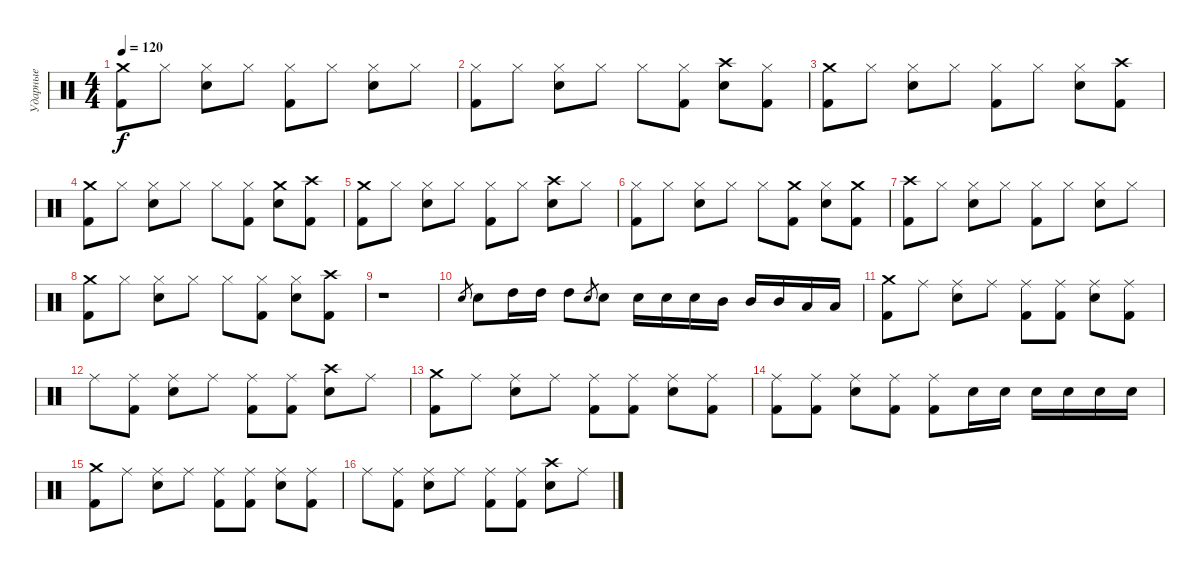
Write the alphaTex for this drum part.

\track ("Ударные" "Ударные") {instrument percussion}
\staff {score}
\articulation defaults
\ts (4 4)
\tempo 120
\clef neutral
\ks c
("Crash medium (hit)" "Kick (hit) 2").8{dy f} "Hi-Hat (closed)".8 ("Hi-Hat (closed)" "Electric Snare (hit)").8 "Hi-Hat (closed)".8 ("Hi-Hat (closed)" "Kick (hit) 2").8 "Hi-Hat (closed)".8 ("Hi-Hat (closed)" "Electric Snare (hit)").8 "Hi-Hat (closed)".8 |
("Hi-Hat (closed)" "Kick (hit) 2").8 "Hi-Hat (closed)".8 ("Hi-Hat (closed)" "Electric Snare (hit)").8 "Hi-Hat (closed)".8 "Hi-Hat (closed)".8 ("Hi-Hat (closed)" "Kick (hit) 2").8 ("Crash high (hit)" "Electric Snare (hit)").8 ("Hi-Hat (closed)" "Kick (hit) 2").8 |
("Crash medium (hit)" "Kick (hit) 2").8 "Hi-Hat (closed)".8 ("Hi-Hat (closed)" "Electric Snare (hit)").8 "Hi-Hat (closed)".8 ("Hi-Hat (closed)" "Kick (hit) 2").8 "Hi-Hat (closed)".8 ("Hi-Hat (closed)" "Electric Snare (hit)").8 ("Crash high (hit)" "Kick (hit) 2").8 |
("Crash medium (hit)" "Kick (hit) 2").8 "Hi-Hat (closed)".8 ("Hi-Hat (closed)" "Electric Snare (hit)").8 "Hi-Hat (closed)".8 "Hi-Hat (closed)".8 ("Hi-Hat (closed)" "Kick (hit) 2").8 ("Crash medium (hit)" "Electric Snare (hit)").8 ("Crash high (hit)" "Kick (hit) 2").8 |
("Crash medium (hit)" "Kick (hit) 2").8 "Hi-Hat (closed)".8 ("Hi-Hat (closed)" "Electric Snare (hit)").8 "Hi-Hat (closed)".8 ("Hi-Hat (closed)" "Kick (hit) 2").8 "Hi-Hat (closed)".8 ("Crash high (hit)" "Electric Snare (hit)").8 "Hi-Hat (closed)".8 |
("Hi-Hat (closed)" "Kick (hit) 2").8 "Hi-Hat (closed)".8 ("Hi-Hat (closed)" "Electric Snare (hit)").8 "Hi-Hat (closed)".8 "Hi-Hat (closed)".8 ("Crash medium (hit)" "Kick (hit) 2").8 ("Hi-Hat (closed)" "Electric Snare (hit)").8 ("Crash medium (hit)" "Kick (hit) 2").8 |
("Crash high (hit)" "Kick (hit) 2").8 "Hi-Hat (closed)".8 ("Hi-Hat (closed)" "Electric Snare (hit)").8 "Hi-Hat (closed)".8 ("Hi-Hat (closed)" "Kick (hit) 2").8 "Hi-Hat (closed)".8 ("Hi-Hat (closed)" "Electric Snare (hit)").8 "Hi-Hat (closed)".8 |
("Crash medium (hit)" "Kick (hit) 2").8 "Hi-Hat (closed)".8 ("Hi-Hat (closed)" "Electric Snare (hit)").8 "Hi-Hat (closed)".8 "Hi-Hat (closed)".8 ("Hi-Hat (closed)" "Kick (hit) 2").8 ("Hi-Hat (closed)" "Electric Snare (hit)").8 ("Crash high (hit)" "Kick (hit) 2").8 |
r.1 |
"Electric Snare (hit)".8{gr} "Electric Snare (hit)".8 "High Tom (hit)".16 "High Tom (hit)".16 "High Tom (hit)".8 "Electric Snare (hit)".8{gr} "Electric Snare (hit)".8 "Electric Snare (hit)".16 "Electric Snare (hit)".16 "Electric Snare (hit)".16 "Mid Tom (hit)".16 "Mid Tom (hit)".16 "Mid Tom (hit)".16 "Low Tom (hit)".16 "Low Tom (hit)".16 |
("Crash medium (hit)" "Kick (hit) 2").8 "Ride (middle)".8 ("Ride (middle)" "Electric Snare (hit)").8 "Ride (middle)".8 ("Ride (middle)" "Kick (hit) 2").8 ("Ride (middle)" "Kick (hit) 2").8 ("Ride (middle)" "Electric Snare (hit)").8 ("Ride (middle)" "Kick (hit) 2").8 |
"Ride (middle)".8 ("Ride (middle)" "Kick (hit) 2").8 ("Ride (middle)" "Electric Snare (hit)").8 "Ride (middle)".8 ("Ride (middle)" "Kick (hit) 2").8 ("Ride (middle)" "Kick (hit) 2").8 ("Crash high (hit)" "Electric Snare (hit)").8 "Ride (middle)".8 |
("Crash medium (hit)" "Kick (hit) 2").8 "Ride (middle)".8 ("Ride (middle)" "Electric Snare (hit)").8 "Ride (middle)".8 ("Ride (middle)" "Kick (hit) 2").8 ("Ride (middle)" "Kick (hit) 2").8 ("Ride (middle)" "Electric Snare (hit)").8 ("Ride (middle)" "Kick (hit) 2").8 |
("Ride (middle)" "Kick (hit) 2").8 ("Ride (middle)" "Kick (hit) 2").8 ("Ride (middle)" "Electric Snare (hit)").8 ("Ride (middle)" "Kick (hit) 2").8 ("Ride (middle)" "Kick (hit) 2").8 "Electric Snare (hit)".16 "Electric Snare (hit)".16 "Electric Snare (hit)".16 "Electric Snare (hit)".16 "Electric Snare (hit)".16 "Electric Snare (hit)".16 |
("Crash medium (hit)" "Kick (hit) 2").8 "Ride (middle)".8 ("Ride (middle)" "Electric Snare (hit)").8 "Ride (middle)".8 ("Ride (middle)" "Kick (hit) 2").8 ("Ride (middle)" "Kick (hit) 2").8 ("Ride (middle)" "Electric Snare (hit)").8 ("Ride (middle)" "Kick (hit) 2").8 |
"Ride (middle)".8 ("Ride (middle)" "Kick (hit) 2").8 ("Ride (middle)" "Electric Snare (hit)").8 "Ride (middle)".8 ("Ride (middle)" "Kick (hit) 2").8 ("Ride (middle)" "Kick (hit) 2").8 ("Crash high (hit)" "Electric Snare (hit)").8 "Ride (middle)".8
